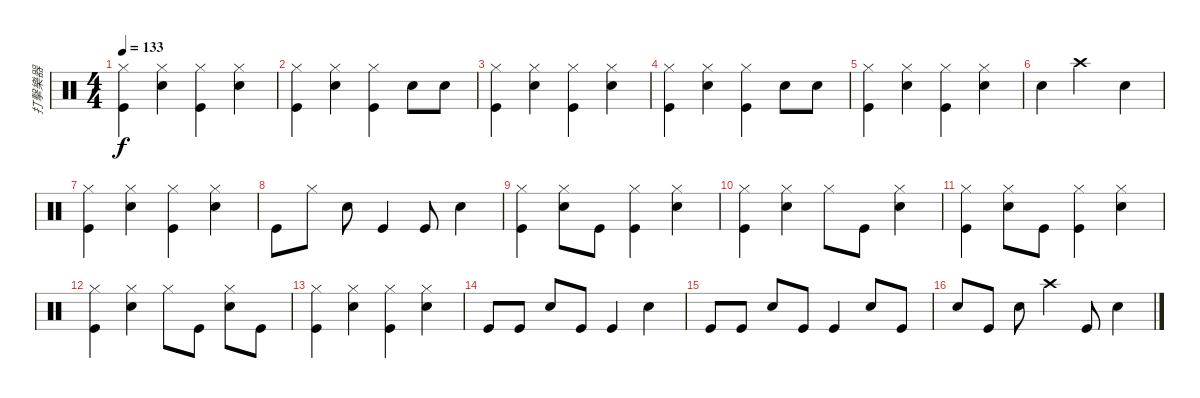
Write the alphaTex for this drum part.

\track ("打擊樂器" "打擊樂器") {instrument percussion}
\staff {score}
\articulation defaults
\ts (4 4)
\tempo 133
\clef neutral
\ks c
("Hi-Hat (closed)" "Kick (hit)").4{dy f} ("Hi-Hat (closed)" "Snare (hit) 2").4 ("Hi-Hat (closed)" "Kick (hit)").4 ("Hi-Hat (closed)" "Snare (hit) 2").4 |
("Hi-Hat (closed)" "Kick (hit)").4 ("Hi-Hat (closed)" "Snare (hit) 2").4 ("Hi-Hat (closed)" "Kick (hit)").4 "Snare (hit) 2".8 "Snare (hit) 2".8 |
("Hi-Hat (closed)" "Kick (hit)").4 ("Hi-Hat (closed)" "Snare (hit) 2").4 ("Hi-Hat (closed)" "Kick (hit)").4 ("Hi-Hat (closed)" "Snare (hit) 2").4 |
("Hi-Hat (closed)" "Kick (hit)").4 ("Hi-Hat (closed)" "Snare (hit) 2").4 ("Hi-Hat (closed)" "Kick (hit)").4 "Snare (hit) 2".8 "Snare (hit) 2".8 |
("Hi-Hat (closed)" "Kick (hit)").4 ("Hi-Hat (closed)" "Snare (hit) 2").4 ("Hi-Hat (closed)" "Kick (hit)").4 ("Hi-Hat (closed)" "Snare (hit) 2").4 |
"Snare (hit) 2".4 "Crash high (hit)".2 "Snare (hit) 2".4 |
("Hi-Hat (closed)" "Kick (hit)").4 ("Hi-Hat (closed)" "Snare (hit) 2").4 ("Hi-Hat (closed)" "Kick (hit)").4 ("Hi-Hat (closed)" "Snare (hit) 2").4 |
"Kick (hit)".8 "Hi-Hat (closed)".8 "Snare (hit) 2".8 "Kick (hit)".4 "Kick (hit)".8 "Snare (hit) 2".4 |
("Hi-Hat (closed)" "Kick (hit)").4 ("Hi-Hat (closed)" "Snare (hit) 2").8 "Kick (hit)".8 ("Kick (hit)" "Hi-Hat (closed)").4 ("Hi-Hat (closed)" "Snare (hit) 2").4 |
("Kick (hit)" "Hi-Hat (closed)").4 ("Hi-Hat (closed)" "Snare (hit) 2").4 "Hi-Hat (closed)".8 "Kick (hit)".8 ("Snare (hit) 2" "Hi-Hat (closed)").4 |
("Hi-Hat (closed)" "Kick (hit)").4 ("Hi-Hat (closed)" "Snare (hit) 2").8 "Kick (hit)".8 ("Kick (hit)" "Hi-Hat (closed)").4 ("Hi-Hat (closed)" "Snare (hit) 2").4 |
("Kick (hit)" "Hi-Hat (closed)").4 ("Hi-Hat (closed)" "Snare (hit) 2").4 "Hi-Hat (closed)".8 "Kick (hit)".8 ("Snare (hit) 2" "Hi-Hat (closed)").8 "Kick (hit)".8 |
("Hi-Hat (closed)" "Kick (hit)").4 ("Hi-Hat (closed)" "Snare (hit) 2").4 ("Hi-Hat (closed)" "Kick (hit)").4 ("Hi-Hat (closed)" "Snare (hit) 2").4 |
"Kick (hit)".8 "Kick (hit)".8 "Snare (hit) 2".8 "Kick (hit)".8 "Kick (hit)".4 "Snare (hit) 2".4 |
"Kick (hit)".8 "Kick (hit)".8 "Snare (hit) 2".8 "Kick (hit)".8 "Kick (hit)".4 "Snare (hit) 2".8 "Kick (hit)".8 |
"Snare (hit) 2".8 "Kick (hit)".8 "Snare (hit) 2".8 "Crash high (hit)".4 "Kick (hit)".8 "Snare (hit) 2".4
